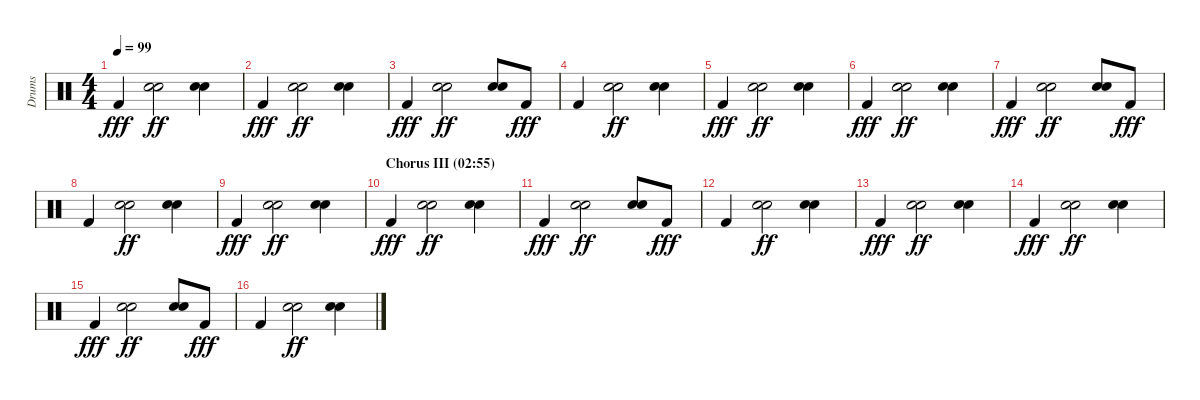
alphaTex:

\track ("Drums" "Drums") {instrument percussion}
\staff {score}
\articulation defaults
\ts (4 4)
\tempo 99
\clef neutral
\ks c "Kick (hit) 2".4{dy fff}
("Snare (hit) 2" "Hand Clap (hit)").2{dy ff} ("Snare (hit) 2" "Hand Clap (hit)").4 |
"Kick (hit) 2".4{dy fff} ("Snare (hit) 2" "Hand Clap (hit)").2{dy ff} ("Snare (hit) 2" "Hand Clap (hit)").4 |
"Kick (hit) 2".4{dy fff} ("Snare (hit) 2" "Hand Clap (hit)").2{dy ff} ("Snare (hit) 2" "Hand Clap (hit)").8 "Kick (hit) 2".8{dy fff} |
"Kick (hit) 2".4 ("Snare (hit) 2" "Hand Clap (hit)").2{dy ff} ("Snare (hit) 2" "Hand Clap (hit)").4 |
"Kick (hit) 2".4{dy fff} ("Snare (hit) 2" "Hand Clap (hit)").2{dy ff} ("Snare (hit) 2" "Hand Clap (hit)").4 |
"Kick (hit) 2".4{dy fff} ("Snare (hit) 2" "Hand Clap (hit)").2{dy ff} ("Snare (hit) 2" "Hand Clap (hit)").4 |
"Kick (hit) 2".4{dy fff} ("Snare (hit) 2" "Hand Clap (hit)").2{dy ff} ("Snare (hit) 2" "Hand Clap (hit)").8 "Kick (hit) 2".8{dy fff} |
"Kick (hit) 2".4 ("Snare (hit) 2" "Hand Clap (hit)").2{dy ff} ("Snare (hit) 2" "Hand Clap (hit)").4 |
"Kick (hit) 2".4{dy fff} ("Snare (hit) 2" "Hand Clap (hit)").2{dy ff} ("Snare (hit) 2" "Hand Clap (hit)").4 |
\section ("" "Chorus III (02:55)")
"Kick (hit) 2".4{dy fff} ("Snare (hit) 2" "Hand Clap (hit)").2{dy ff} ("Snare (hit) 2" "Hand Clap (hit)").4 |
"Kick (hit) 2".4{dy fff} ("Snare (hit) 2" "Hand Clap (hit)").2{dy ff} ("Snare (hit) 2" "Hand Clap (hit)").8 "Kick (hit) 2".8{dy fff} |
"Kick (hit) 2".4 ("Snare (hit) 2" "Hand Clap (hit)").2{dy ff} ("Snare (hit) 2" "Hand Clap (hit)").4 |
"Kick (hit) 2".4{dy fff} ("Snare (hit) 2" "Hand Clap (hit)").2{dy ff} ("Snare (hit) 2" "Hand Clap (hit)").4 |
"Kick (hit) 2".4{dy fff} ("Snare (hit) 2" "Hand Clap (hit)").2{dy ff} ("Snare (hit) 2" "Hand Clap (hit)").4 |
"Kick (hit) 2".4{dy fff} ("Snare (hit) 2" "Hand Clap (hit)").2{dy ff} ("Snare (hit) 2" "Hand Clap (hit)").8 "Kick (hit) 2".8{dy fff} |
"Kick (hit) 2".4 ("Snare (hit) 2" "Hand Clap (hit)").2{dy ff} ("Snare (hit) 2" "Hand Clap (hit)").4
